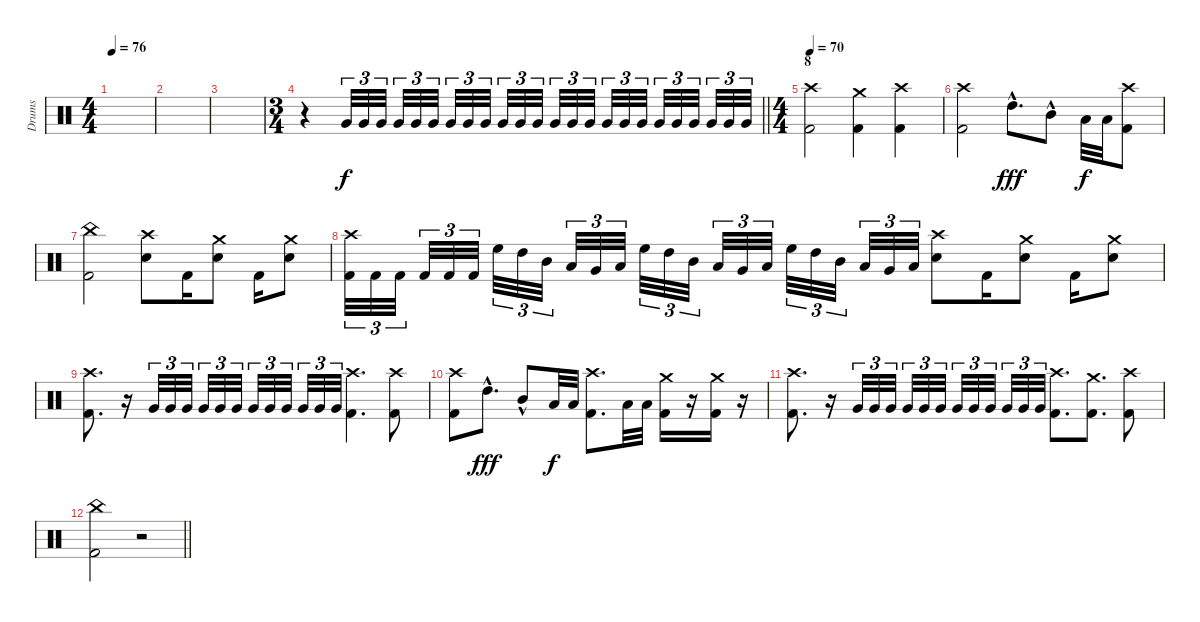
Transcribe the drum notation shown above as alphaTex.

\track ("Drums" "Drums") {instrument percussion}
\staff {score}
\articulation defaults
\ts (4 4)
\tempo 76
\clef neutral
\ks c
|
|
|
\ts (3 4)
\barLineRight lightlight
r.4 "Very Low Tom (hit)".32{tu (3 2) volume 12} "Very Low Tom (hit)".32{tu (3 2)} "Very Low Tom (hit)".32{tu (3 2) beam splitsecondary} "Very Low Tom (hit)".32{tu (3 2)} "Very Low Tom (hit)".32{tu (3 2)} "Very Low Tom (hit)".32{tu (3 2) beam splitsecondary} "Very Low Tom (hit)".32{tu (3 2)} "Very Low Tom (hit)".32{tu (3 2)} "Very Low Tom (hit)".32{tu (3 2) beam splitsecondary} "Very Low Tom (hit)".32{tu (3 2)} "Very Low Tom (hit)".32{tu (3 2)} "Very Low Tom (hit)".32{tu (3 2)} "Very Low Tom (hit)".32{tu (3 2)} "Very Low Tom (hit)".32{tu (3 2)} "Very Low Tom (hit)".32{tu (3 2) beam splitsecondary} "Very Low Tom (hit)".32{tu (3 2)} "Very Low Tom (hit)".32{tu (3 2)} "Very Low Tom (hit)".32{tu (3 2) beam splitsecondary} "Very Low Tom (hit)".32{tu (3 2)} "Very Low Tom (hit)".32{tu (3 2)} "Very Low Tom (hit)".32{tu (3 2) beam splitsecondary} "Very Low Tom (hit)".32{tu (3 2)} "Very Low Tom (hit)".32{tu (3 2)} "Very Low Tom (hit)".32{tu (3 2)} |
\ts (4 4)
\section ("" "8")
\tempo 70
("Crash high (hit)" "Kick (hit) 2").2 ("Crash medium (hit)" "Kick (hit) 2").4 ("Crash high (hit)" "Kick (hit) 2").4 |
("Crash high (hit)" "Kick (hit) 2").2 "High Tom (hit)"{hac}.8{d dy fff} "Mid Tom (hit)"{hac}.8 "Low Tom (hit)".32{dy f} "Low Tom (hit)".32 ("Crash high (hit)" "Kick (hit) 2").8 |
("China (hit)" "Kick (hit) 2").2 ("Crash high (hit)" "Snare (hit) 2").8 "Kick (hit) 2".16 ("Crash medium (hit)" "Snare (hit) 2").8 "Kick (hit) 2".16 ("Crash medium (hit)" "Snare (hit) 2").8 |
("Crash high (hit)" "Kick (hit) 2").32{tu (3 2)} "Kick (hit) 2".32{tu (3 2)} "Kick (hit) 2".32{tu (3 2) beam splitsecondary} "Kick (hit) 2".32{tu (3 2)} "Kick (hit) 2".32{tu (3 2)} "Kick (hit) 2".32{tu (3 2) beam splitsecondary} "High Floor Tom (hit)".32{tu (3 2)} "High Tom (hit)".32{tu (3 2)} "Mid Tom (hit)".32{tu (3 2) beam splitsecondary} "Low Tom (hit)".32{tu (3 2)} "Very Low Tom (hit)".32{tu (3 2)} "Low Floor Tom (hit)".32{tu (3 2)} "High Floor Tom (hit)".32{tu (3 2)} "High Tom (hit)".32{tu (3 2)} "Mid Tom (hit)".32{tu (3 2) beam splitsecondary} "Low Tom (hit)".32{tu (3 2)} "Very Low Tom (hit)".32{tu (3 2)} "Low Floor Tom (hit)".32{tu (3 2) beam splitsecondary} "High Floor Tom (hit)".32{tu (3 2)} "High Tom (hit)".32{tu (3 2)} "Mid Tom (hit)".32{tu (3 2) beam splitsecondary} "Low Tom (hit)".32{tu (3 2)} "Very Low Tom (hit)".32{tu (3 2)} "Low Floor Tom (hit)".32{tu (3 2)} ("Crash high (hit)" "Snare (hit) 2").8 "Kick (hit) 2".16 ("Crash medium (hit)" "Snare (hit) 2").8 "Kick (hit) 2".16 ("Crash medium (hit)" "Snare (hit) 2").8 |
("Crash high (hit)" "Kick (hit) 2").8{d} r.16{volume 6} "Very Low Tom (hit)".32{tu (3 2) volume 12} "Very Low Tom (hit)".32{tu (3 2)} "Very Low Tom (hit)".32{tu (3 2) beam splitsecondary} "Very Low Tom (hit)".32{tu (3 2)} "Very Low Tom (hit)".32{tu (3 2)} "Very Low Tom (hit)".32{tu (3 2) beam splitsecondary} "Very Low Tom (hit)".32{tu (3 2)} "Very Low Tom (hit)".32{tu (3 2)} "Very Low Tom (hit)".32{tu (3 2) beam splitsecondary} "Very Low Tom (hit)".32{tu (3 2)} "Very Low Tom (hit)".32{tu (3 2)} "Very Low Tom (hit)".32{tu (3 2)} ("Crash high (hit)" "Kick (hit) 2").4{d} ("Crash high (hit)" "Kick (hit) 2").8 |
("Crash high (hit)" "Kick (hit) 2").8 "High Tom (hit)"{hac}.8{d dy fff} "Mid Tom (hit)"{hac}.8 "Low Tom (hit)".32{dy f} "Low Tom (hit)".32 ("Crash high (hit)" "Kick (hit) 2").8{d} "Low Tom (hit)".32 "Low Tom (hit)".32 ("Crash medium (hit)" "Kick (hit) 2").16 r.16 ("Crash medium (hit)" "Kick (hit) 2").16 r.16 |
("Crash high (hit)" "Kick (hit) 2").8{d} r.16{volume 6} "Very Low Tom (hit)".32{tu (3 2) volume 12} "Very Low Tom (hit)".32{tu (3 2)} "Very Low Tom (hit)".32{tu (3 2) beam splitsecondary} "Very Low Tom (hit)".32{tu (3 2)} "Very Low Tom (hit)".32{tu (3 2)} "Very Low Tom (hit)".32{tu (3 2) beam splitsecondary} "Very Low Tom (hit)".32{tu (3 2)} "Very Low Tom (hit)".32{tu (3 2)} "Very Low Tom (hit)".32{tu (3 2) beam splitsecondary} "Very Low Tom (hit)".32{tu (3 2)} "Very Low Tom (hit)".32{tu (3 2)} "Very Low Tom (hit)".32{tu (3 2)} ("Crash high (hit)" "Kick (hit) 2").8{d} ("Crash medium (hit)" "Kick (hit) 2").8{d} ("Crash high (hit)" "Kick (hit) 2").8 |
\barLineRight lightlight
("China (hit)" "Kick (hit) 2").2 r.2
